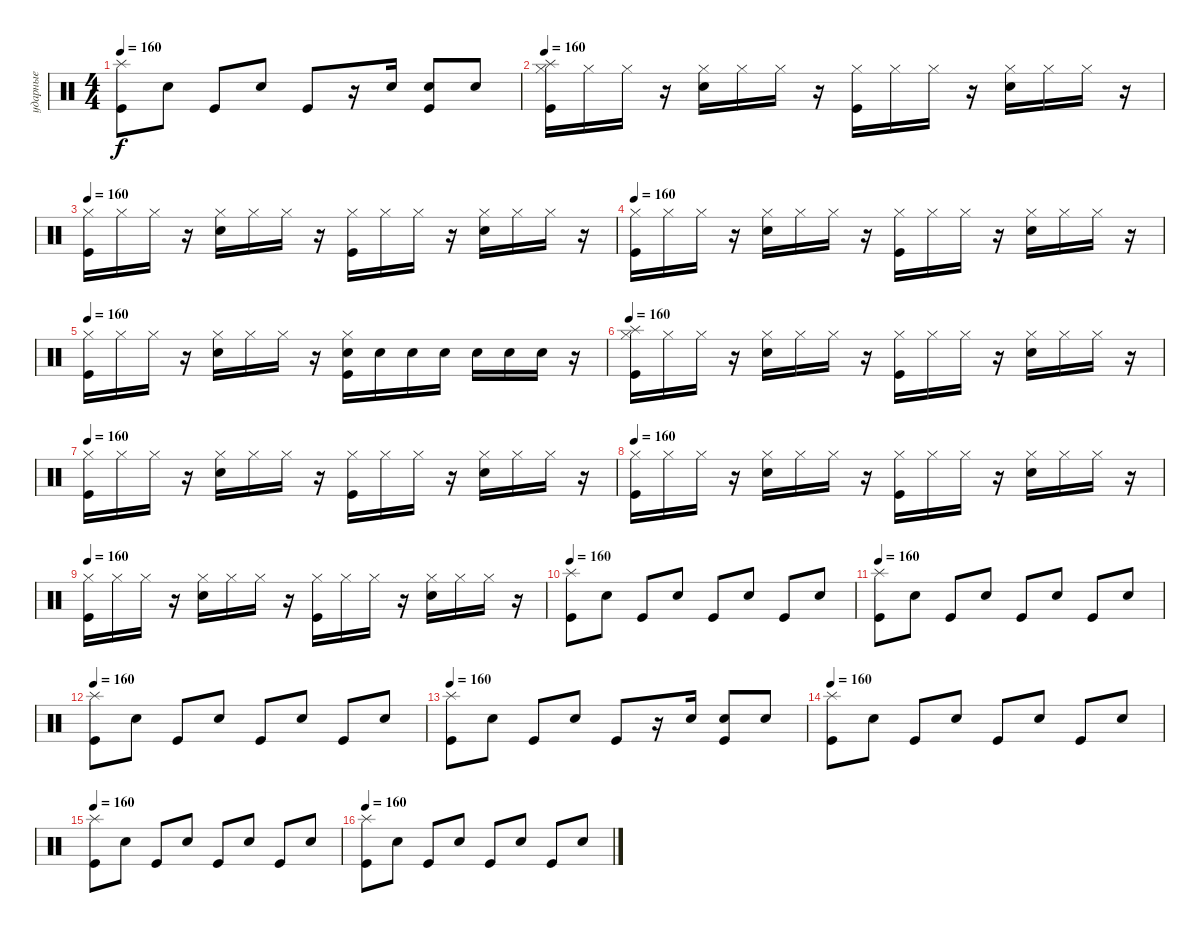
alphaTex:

\track ("ударные" "ударные") {instrument percussion}
\staff {score}
\articulation defaults
\ts (4 4)
\tempo 160
\clef neutral
\ks c
("Splash (hit)" "Kick (hit)").8{dy f} "Electric Snare (hit)".8 "Kick (hit)".8 "Electric Snare (hit)".8 "Kick (hit)".8 r.16 "Electric Snare (hit)".16 ("Electric Snare (hit)" "Kick (hit)").8 "Electric Snare (hit)".8 |
\tempo 160
("Splash (hit)" "Kick (hit)" "Hi-Hat (closed)").16 "Hi-Hat (closed)".16 "Hi-Hat (closed)".16 r.16 ("Hi-Hat (closed)" "Electric Snare (hit)").16 "Hi-Hat (closed)".16 "Hi-Hat (closed)".16 r.16 ("Kick (hit)" "Hi-Hat (closed)").16 "Hi-Hat (closed)".16 "Hi-Hat (closed)".16 r.16 ("Electric Snare (hit)" "Hi-Hat (closed)").16 "Hi-Hat (closed)".16 "Hi-Hat (closed)".16 r.16 |
\tempo 160
("Kick (hit)" "Hi-Hat (closed)").16 "Hi-Hat (closed)".16 "Hi-Hat (closed)".16 r.16 ("Hi-Hat (closed)" "Electric Snare (hit)").16 "Hi-Hat (closed)".16 "Hi-Hat (closed)".16 r.16 ("Hi-Hat (closed)" "Kick (hit)").16 "Hi-Hat (closed)".16 "Hi-Hat (closed)".16 r.16 ("Hi-Hat (closed)" "Electric Snare (hit)").16 "Hi-Hat (closed)".16 "Hi-Hat (closed)".16 r.16 |
\tempo 160
("Kick (hit)" "Hi-Hat (closed)").16 "Hi-Hat (closed)".16 "Hi-Hat (closed)".16 r.16 ("Hi-Hat (closed)" "Electric Snare (hit)").16 "Hi-Hat (closed)".16 "Hi-Hat (closed)".16 r.16 ("Hi-Hat (closed)" "Kick (hit)").16 "Hi-Hat (closed)".16 "Hi-Hat (closed)".16 r.16 ("Hi-Hat (closed)" "Electric Snare (hit)").16 "Hi-Hat (closed)".16 "Hi-Hat (closed)".16 r.16 |
\tempo 160
("Kick (hit)" "Hi-Hat (closed)").16 "Hi-Hat (closed)".16 "Hi-Hat (closed)".16 r.16 ("Hi-Hat (closed)" "Electric Snare (hit)").16 "Hi-Hat (closed)".16 "Hi-Hat (closed)".16 r.16 ("Hi-Hat (closed)" "Electric Snare (hit)" "Kick (hit)").16 "Electric Snare (hit)".16 "Electric Snare (hit)".16 "Electric Snare (hit)".16 "Snare (hit) 2".16 "Snare (hit) 2".16 "Snare (hit) 2".16 r.16 |
\tempo 160
("Splash (hit)" "Kick (hit)" "Hi-Hat (closed)").16 "Hi-Hat (closed)".16 "Hi-Hat (closed)".16 r.16 ("Hi-Hat (closed)" "Electric Snare (hit)").16 "Hi-Hat (closed)".16 "Hi-Hat (closed)".16 r.16 ("Kick (hit)" "Hi-Hat (closed)").16 "Hi-Hat (closed)".16 "Hi-Hat (closed)".16 r.16 ("Electric Snare (hit)" "Hi-Hat (closed)").16 "Hi-Hat (closed)".16 "Hi-Hat (closed)".16 r.16 |
\tempo 160
("Kick (hit)" "Hi-Hat (closed)").16 "Hi-Hat (closed)".16 "Hi-Hat (closed)".16 r.16 ("Hi-Hat (closed)" "Electric Snare (hit)").16 "Hi-Hat (closed)".16 "Hi-Hat (closed)".16 r.16 ("Hi-Hat (closed)" "Kick (hit)").16 "Hi-Hat (closed)".16 "Hi-Hat (closed)".16 r.16 ("Hi-Hat (closed)" "Electric Snare (hit)").16 "Hi-Hat (closed)".16 "Hi-Hat (closed)".16 r.16 |
\tempo 160
("Kick (hit)" "Hi-Hat (closed)").16 "Hi-Hat (closed)".16 "Hi-Hat (closed)".16 r.16 ("Hi-Hat (closed)" "Electric Snare (hit)").16 "Hi-Hat (closed)".16 "Hi-Hat (closed)".16 r.16 ("Hi-Hat (closed)" "Kick (hit)").16 "Hi-Hat (closed)".16 "Hi-Hat (closed)".16 r.16 ("Hi-Hat (closed)" "Electric Snare (hit)").16 "Hi-Hat (closed)".16 "Hi-Hat (closed)".16 r.16 |
\tempo 160
("Kick (hit)" "Hi-Hat (closed)").16 "Hi-Hat (closed)".16 "Hi-Hat (closed)".16 r.16 ("Hi-Hat (closed)" "Electric Snare (hit)").16 "Hi-Hat (closed)".16 "Hi-Hat (closed)".16 r.16 ("Hi-Hat (closed)" "Kick (hit)").16 "Hi-Hat (closed)".16 "Hi-Hat (closed)".16 r.16 ("Hi-Hat (closed)" "Electric Snare (hit)").16 "Hi-Hat (closed)".16 "Hi-Hat (closed)".16 r.16 |
\tempo 160
("Splash (hit)" "Kick (hit)").8 "Electric Snare (hit)".8 "Kick (hit)".8 "Electric Snare (hit)".8 "Kick (hit)".8 "Electric Snare (hit)".8 "Kick (hit)".8 "Electric Snare (hit)".8 |
\tempo 160
("Splash (hit)" "Kick (hit)").8 "Electric Snare (hit)".8 "Kick (hit)".8 "Electric Snare (hit)".8 "Kick (hit)".8 "Electric Snare (hit)".8 "Kick (hit)".8 "Electric Snare (hit)".8 |
\tempo 160
("Splash (hit)" "Kick (hit)").8 "Electric Snare (hit)".8 "Kick (hit)".8 "Electric Snare (hit)".8 "Kick (hit)".8 "Electric Snare (hit)".8 "Kick (hit)".8 "Electric Snare (hit)".8 |
\tempo 160
("Splash (hit)" "Kick (hit)").8 "Electric Snare (hit)".8 "Kick (hit)".8 "Electric Snare (hit)".8 "Kick (hit)".8 r.16 "Electric Snare (hit)".16 ("Electric Snare (hit)" "Kick (hit)").8 "Electric Snare (hit)".8 |
\tempo 160
("Splash (hit)" "Kick (hit)").8 "Electric Snare (hit)".8 "Kick (hit)".8 "Electric Snare (hit)".8 "Kick (hit)".8 "Electric Snare (hit)".8 "Kick (hit)".8 "Electric Snare (hit)".8 |
\tempo 160
("Splash (hit)" "Kick (hit)").8 "Electric Snare (hit)".8 "Kick (hit)".8 "Electric Snare (hit)".8 "Kick (hit)".8 "Electric Snare (hit)".8 "Kick (hit)".8 "Electric Snare (hit)".8 |
\tempo 160
("Splash (hit)" "Kick (hit)").8 "Electric Snare (hit)".8 "Kick (hit)".8 "Electric Snare (hit)".8 "Kick (hit)".8 "Electric Snare (hit)".8 "Kick (hit)".8 "Electric Snare (hit)".8
